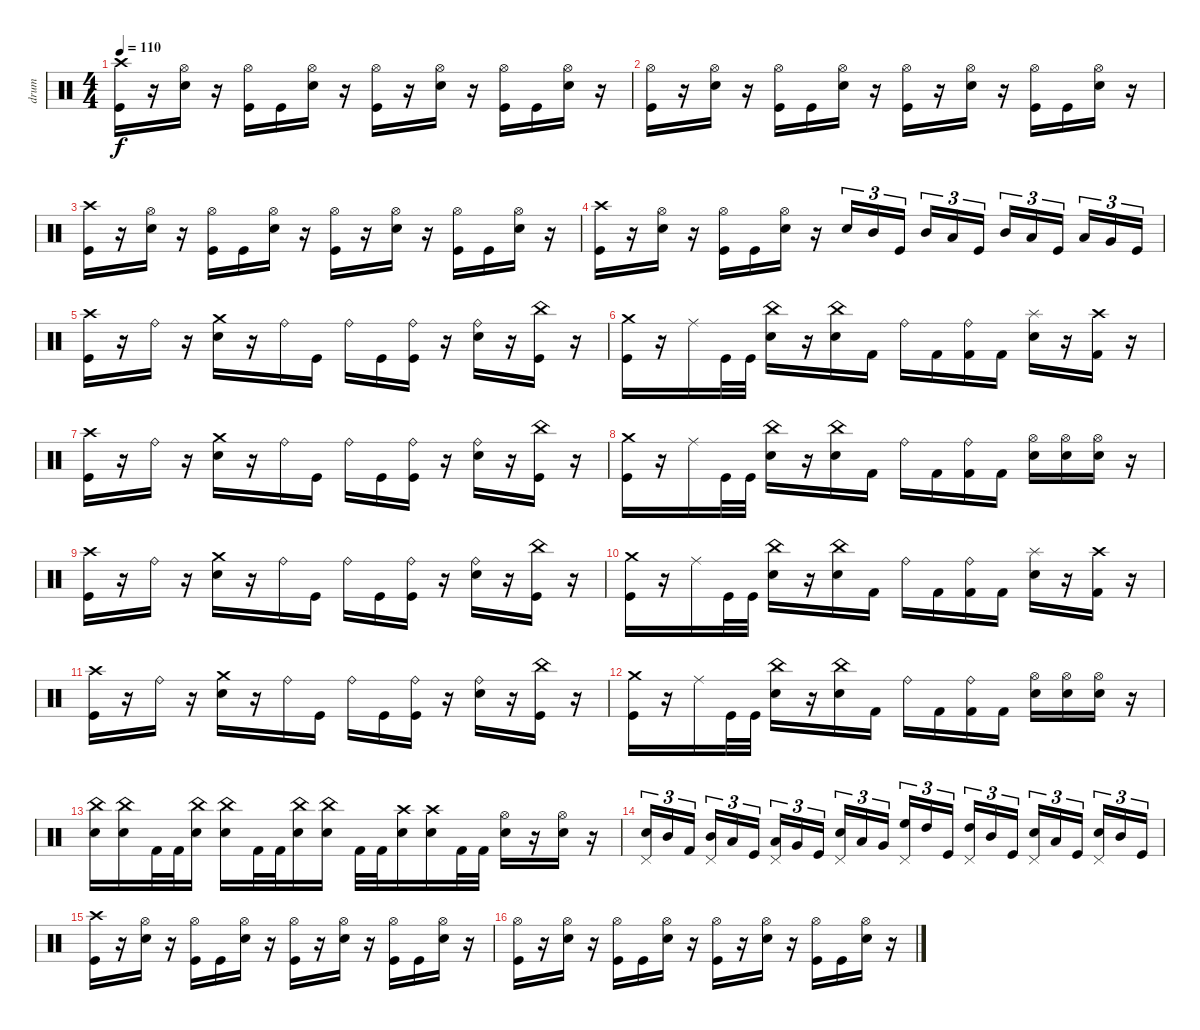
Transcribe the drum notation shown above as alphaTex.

\track ("drum" "drum") {instrument percussion}
\staff {score}
\articulation defaults
\ts (4 4)
\tempo 110
\clef neutral
\ks c
("Crash high (hit)" "Kick (hit)").16{dy f} r.16 ("Hi-Hat (open)" "Snare (hit) 2").16 r.16 ("Hi-Hat (open)" "Kick (hit)").16 "Kick (hit)".16 ("Hi-Hat (open)" "Snare (hit) 2").16 r.16 ("Hi-Hat (open)" "Kick (hit)").16 r.16 ("Hi-Hat (open)" "Snare (hit) 2").16 r.16 ("Hi-Hat (open)" "Kick (hit)").16 "Kick (hit)".16 ("Hi-Hat (open)" "Snare (hit) 2").16 r.16 |
("Hi-Hat (open)" "Kick (hit)").16 r.16 ("Hi-Hat (open)" "Snare (hit) 2").16 r.16 ("Hi-Hat (open)" "Kick (hit)").16 "Kick (hit)".16 ("Hi-Hat (open)" "Snare (hit) 2").16 r.16 ("Hi-Hat (open)" "Kick (hit)").16 r.16 ("Hi-Hat (open)" "Snare (hit) 2").16 r.16 ("Hi-Hat (open)" "Kick (hit)").16 "Kick (hit)".16 ("Hi-Hat (open)" "Snare (hit) 2").16 r.16 |
("Crash high (hit)" "Kick (hit)").16 r.16 ("Hi-Hat (open)" "Snare (hit) 2").16 r.16 ("Hi-Hat (open)" "Kick (hit)").16 "Kick (hit)".16 ("Hi-Hat (open)" "Snare (hit) 2").16 r.16 ("Hi-Hat (open)" "Kick (hit)").16 r.16 ("Hi-Hat (open)" "Snare (hit) 2").16 r.16 ("Hi-Hat (open)" "Kick (hit)").16 "Kick (hit)".16 ("Hi-Hat (open)" "Snare (hit) 2").16 r.16 |
("Crash high (hit)" "Kick (hit)").16 r.16 ("Hi-Hat (open)" "Snare (hit) 2").16 r.16 ("Hi-Hat (open)" "Kick (hit)").16 "Kick (hit)".16 ("Hi-Hat (open)" "Snare (hit) 2").16 r.16 "Snare (hit) 2".16{tu (3 2)} "Mid Tom (hit)".16{tu (3 2)} "Kick (hit)".16{tu (3 2)} "Mid Tom (hit)".16{tu (3 2)} "Low Tom (hit)".16{tu (3 2)} "Kick (hit)".16{tu (3 2)} "Mid Tom (hit)".16{tu (3 2)} "Low Tom (hit)".16{tu (3 2)} "Kick (hit)".16{tu (3 2)} "Low Tom (hit)".16{tu (3 2)} "Very Low Tom (hit)".16{tu (3 2)} "Kick (hit)".16{tu (3 2)} |
("Crash high (hit)" "Kick (hit)").16 r.16 "Ride (bell)".16 r.16 ("Crash medium (hit)" "Snare (hit) 2").16 r.16 "Ride (bell)".16 "Kick (hit)".16 "Ride (bell)".16 "Kick (hit)".16 ("Ride (bell)" "Kick (hit)").16 r.16 ("Ride (bell)" "Snare (hit) 2").16 r.16 ("China (hit)" "Kick (hit)").16 r.16 |
("Crash medium (hit)" "Kick (hit)").16 r.16 "Ride (middle)".16 "Kick (hit)".32 "Kick (hit)".32 ("China (hit)" "Snare (hit) 2").16 r.16 ("China (hit)" "Snare (hit) 2").16 "Kick (hit) 2".16 "Ride (bell)".16 "Kick (hit) 2".16 ("Ride (bell)" "Kick (hit) 2").16 "Kick (hit) 2".16 ("Splash (hit)" "Snare (hit) 2").16 r.16 ("Crash high (hit)" "Kick (hit) 2").16 r.16 |
("Crash high (hit)" "Kick (hit)").16 r.16 "Ride (bell)".16 r.16 ("Crash medium (hit)" "Snare (hit) 2").16 r.16 "Ride (bell)".16 "Kick (hit)".16 "Ride (bell)".16 "Kick (hit)".16 ("Ride (bell)" "Kick (hit)").16 r.16 ("Ride (bell)" "Snare (hit) 2").16 r.16 ("China (hit)" "Kick (hit)").16 r.16 |
("Crash medium (hit)" "Kick (hit)").16 r.16 "Ride (middle)".16 "Kick (hit)".32 "Kick (hit)".32 ("China (hit)" "Snare (hit) 2").16 r.16 ("China (hit)" "Snare (hit) 2").16 "Kick (hit) 2".16 "Ride (bell)".16 "Kick (hit) 2".16 ("Ride (bell)" "Kick (hit) 2").16 "Kick (hit) 2".16 ("Hi-Hat (open)" "Snare (hit) 2").16 ("Hi-Hat (open)" "Snare (hit) 2").16 ("Hi-Hat (open)" "Snare (hit) 2").16 r.16 |
("Crash high (hit)" "Kick (hit)").16 r.16 "Ride (bell)".16 r.16 ("Crash medium (hit)" "Snare (hit) 2").16 r.16 "Ride (bell)".16 "Kick (hit)".16 "Ride (bell)".16 "Kick (hit)".16 ("Ride (bell)" "Kick (hit)").16 r.16 ("Ride (bell)" "Snare (hit) 2").16 r.16 ("China (hit)" "Kick (hit)").16 r.16 |
("Crash medium (hit)" "Kick (hit)").16 r.16 "Ride (middle)".16 "Kick (hit)".32 "Kick (hit)".32 ("China (hit)" "Snare (hit) 2").16 r.16 ("China (hit)" "Snare (hit) 2").16 "Kick (hit) 2".16 "Ride (bell)".16 "Kick (hit) 2".16 ("Ride (bell)" "Kick (hit) 2").16 "Kick (hit) 2".16 ("Splash (hit)" "Snare (hit) 2").16 r.16 ("Crash high (hit)" "Kick (hit) 2").16 r.16 |
("Crash high (hit)" "Kick (hit)").16 r.16 "Ride (bell)".16 r.16 ("Crash medium (hit)" "Snare (hit) 2").16 r.16 "Ride (bell)".16 "Kick (hit)".16 "Ride (bell)".16 "Kick (hit)".16 ("Ride (bell)" "Kick (hit)").16 r.16 ("Ride (bell)" "Snare (hit) 2").16 r.16 ("China (hit)" "Kick (hit)").16 r.16 |
("Crash medium (hit)" "Kick (hit)").16 r.16 "Ride (middle)".16 "Kick (hit)".32 "Kick (hit)".32 ("China (hit)" "Snare (hit) 2").16 r.16 ("China (hit)" "Snare (hit) 2").16 "Kick (hit) 2".16 "Ride (bell)".16 "Kick (hit) 2".16 ("Ride (bell)" "Kick (hit) 2").16 "Kick (hit) 2".16 ("Hi-Hat (open)" "Snare (hit) 2").16 ("Hi-Hat (open)" "Snare (hit) 2").16 ("Hi-Hat (open)" "Snare (hit) 2").16 r.16 |
("China (hit)" "Snare (hit) 2").16 ("China (hit)" "Snare (hit) 2").16 "Kick (hit) 2".32 "Kick (hit) 2".32 ("China (hit)" "Snare (hit) 2").16 ("China (hit)" "Snare (hit) 2").16 "Kick (hit) 2".32 "Kick (hit) 2".32 ("China (hit)" "Snare (hit) 2").16 ("China (hit)" "Snare (hit) 2").16 "Kick (hit) 2".32 "Kick (hit) 2".32 ("Crash high (hit)" "Snare (hit) 2").16 ("Crash high (hit)" "Snare (hit) 2").16 "Kick (hit) 2".32 "Kick (hit) 2".32 ("Hi-Hat (open)" "Snare (hit) 2").16 r.16 ("Hi-Hat (open)" "Snare (hit) 2").16 r.16 |
("Pedal Hi-Hat (hit)" "Snare (hit) 2").16{tu (3 2)} "Mid Tom (hit)".16{tu (3 2)} "Kick (hit) 2".16{tu (3 2)} ("Pedal Hi-Hat (hit)" "Mid Tom (hit)").16{tu (3 2)} "Low Tom (hit)".16{tu (3 2)} "Kick (hit)".16{tu (3 2)} ("Pedal Hi-Hat (hit)" "Low Tom (hit)").16{tu (3 2)} "Very Low Tom (hit)".16{tu (3 2)} "Kick (hit)".16{tu (3 2)} ("Pedal Hi-Hat (hit)" "Snare (hit) 2").16{tu (3 2)} "Low Tom (hit)".16{tu (3 2)} "Very Low Tom (hit)".16{tu (3 2)} ("Pedal Hi-Hat (hit)" "High Floor Tom (hit)").16{tu (3 2)} "High Tom (hit)".16{tu (3 2)} "Kick (hit)".16{tu (3 2)} ("Pedal Hi-Hat (hit)" "High Tom (hit)").16{tu (3 2)} "Mid Tom (hit)".16{tu (3 2)} "Kick (hit)".16{tu (3 2)} ("Pedal Hi-Hat (hit)" "Snare (hit) 2").16{tu (3 2)} "Low Tom (hit)".16{tu (3 2)} "Kick (hit)".16{tu (3 2)} ("Pedal Hi-Hat (hit)" "Snare (hit) 2").16{tu (3 2)} "Mid Tom (hit)".16{tu (3 2)} "Kick (hit)".16{tu (3 2)} |
("Crash high (hit)" "Kick (hit)").16 r.16 ("Hi-Hat (open)" "Snare (hit) 2").16 r.16 ("Hi-Hat (open)" "Kick (hit)").16 "Kick (hit)".16 ("Hi-Hat (open)" "Snare (hit) 2").16 r.16 ("Hi-Hat (open)" "Kick (hit)").16 r.16 ("Hi-Hat (open)" "Snare (hit) 2").16 r.16 ("Hi-Hat (open)" "Kick (hit)").16 "Kick (hit)".16 ("Hi-Hat (open)" "Snare (hit) 2").16 r.16 |
("Hi-Hat (open)" "Kick (hit)").16 r.16 ("Hi-Hat (open)" "Snare (hit) 2").16 r.16 ("Hi-Hat (open)" "Kick (hit)").16 "Kick (hit)".16 ("Hi-Hat (open)" "Snare (hit) 2").16 r.16 ("Hi-Hat (open)" "Kick (hit)").16 r.16 ("Hi-Hat (open)" "Snare (hit) 2").16 r.16 ("Hi-Hat (open)" "Kick (hit)").16 "Kick (hit)".16 ("Hi-Hat (open)" "Snare (hit) 2").16 r.16
